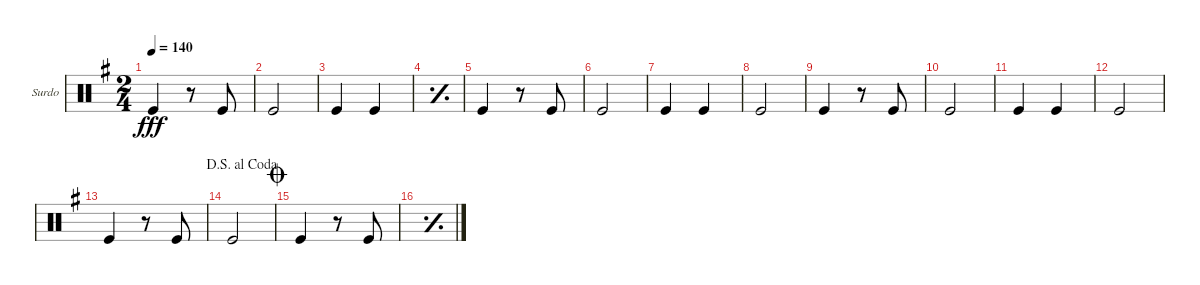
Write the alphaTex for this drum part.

\defaultSystemsLayout 4
\bracketExtendMode groupsimilarinstruments
\firstSystemTrackNameOrientation horizontal
\otherSystemsTrackNameOrientation horizontal
\track ("Surdo" "Surdo") {instrument percussion}
\staff {score}
\articulation defaults
\ts (2 4)
\tempo 140
\clef neutral
\ks g "Kick (hit)".4{dy fff}
r.8 "Kick (hit)".8 |
"Kick (hit)".2 |
"Kick (hit)".4 "Kick (hit)".4 |
\simile simple
|
\simile none "Kick (hit)".4
r.8 "Kick (hit)".8 |
"Kick (hit)".2 |
"Kick (hit)".4 "Kick (hit)".4 |
"Kick (hit)".2 |
"Kick (hit)".4 r.8 "Kick (hit)".8 |
"Kick (hit)".2 |
"Kick (hit)".4 "Kick (hit)".4 |
"Kick (hit)".2 |
"Kick (hit)".4 r.8 "Kick (hit)".8 |
\jump dalsegnoalcoda "Kick (hit)".2
|
\jump coda "Kick (hit)".4
r.8 "Kick (hit)".8 |
\simile simple
